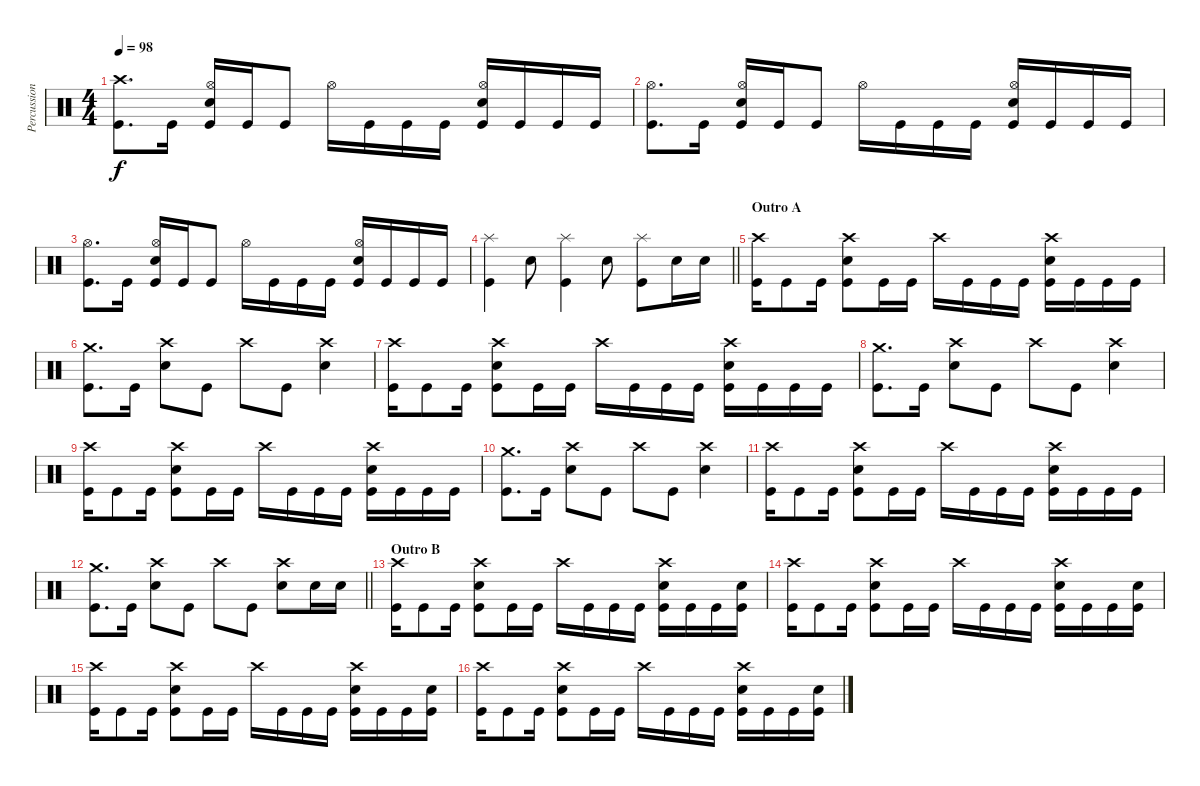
\track ("Percussion" "Percussion") {instrument percussion}
\staff {score}
\articulation defaults
\ts (4 4)
\tempo 98
\clef neutral
\ks c
("Crash high (hit)" "Kick (hit)").8{d dy f} "Kick (hit)".16 ("Hi-Hat (open)" "Electric Snare (hit)" "Kick (hit)").16 "Kick (hit)".16 "Kick (hit)".8 "Hi-Hat (open)".16 "Kick (hit)".16 "Kick (hit)".16 "Kick (hit)".16 ("Hi-Hat (open)" "Electric Snare (hit)" "Kick (hit)").16 "Kick (hit)".16 "Kick (hit)".16 "Kick (hit)".16 |
("Hi-Hat (open)" "Kick (hit)").8{d} "Kick (hit)".16 ("Hi-Hat (open)" "Electric Snare (hit)" "Kick (hit)").16 "Kick (hit)".16 "Kick (hit)".8 "Hi-Hat (open)".16 "Kick (hit)".16 "Kick (hit)".16 "Kick (hit)".16 ("Hi-Hat (open)" "Electric Snare (hit)" "Kick (hit)").16 "Kick (hit)".16 "Kick (hit)".16 "Kick (hit)".16 |
("Hi-Hat (open)" "Kick (hit)").8{d} "Kick (hit)".16 ("Hi-Hat (open)" "Electric Snare (hit)" "Kick (hit)").16 "Kick (hit)".16 "Kick (hit)".8 "Hi-Hat (open)".16 "Kick (hit)".16 "Kick (hit)".16 "Kick (hit)".16 ("Hi-Hat (open)" "Electric Snare (hit)" "Kick (hit)").16 "Kick (hit)".16 "Kick (hit)".16 "Kick (hit)".16 |
\barLineRight lightlight
("Splash (hit)" "Kick (hit)").4 "Electric Snare (hit)".8 ("Splash (hit)" "Kick (hit)").4 "Electric Snare (hit)".8 ("Splash (hit)" "Kick (hit)").8 "Electric Snare (hit)".16 "Electric Snare (hit)".16 |
\section ("" "Outro A")
("Crash high (hit)" "Kick (hit)").16 "Kick (hit)".8 "Kick (hit)".16 ("Crash high (hit)" "Electric Snare (hit)" "Kick (hit)").8 "Kick (hit)".16 "Kick (hit)".16 "Crash high (hit)".16 "Kick (hit)".16 "Kick (hit)".16 "Kick (hit)".16 ("Crash high (hit)" "Electric Snare (hit)" "Kick (hit)").16 "Kick (hit)".16 "Kick (hit)".16 "Kick (hit)".16 |
("Crash medium (hit)" "Kick (hit)").8{d} "Kick (hit)".16 ("Crash high (hit)" "Electric Snare (hit)").8 "Kick (hit)".8 "Crash high (hit)".8 "Kick (hit)".8 ("Crash high (hit)" "Electric Snare (hit)").4 |
("Crash high (hit)" "Kick (hit)").16 "Kick (hit)".8 "Kick (hit)".16 ("Crash high (hit)" "Electric Snare (hit)" "Kick (hit)").8 "Kick (hit)".16 "Kick (hit)".16 "Crash high (hit)".16 "Kick (hit)".16 "Kick (hit)".16 "Kick (hit)".16 ("Crash high (hit)" "Electric Snare (hit)" "Kick (hit)").16 "Kick (hit)".16 "Kick (hit)".16 "Kick (hit)".16 |
("Crash medium (hit)" "Kick (hit)").8{d} "Kick (hit)".16 ("Crash high (hit)" "Electric Snare (hit)").8 "Kick (hit)".8 "Crash high (hit)".8 "Kick (hit)".8 ("Crash high (hit)" "Electric Snare (hit)").4 |
("Crash high (hit)" "Kick (hit)").16 "Kick (hit)".8 "Kick (hit)".16 ("Crash high (hit)" "Electric Snare (hit)" "Kick (hit)").8 "Kick (hit)".16 "Kick (hit)".16 "Crash high (hit)".16 "Kick (hit)".16 "Kick (hit)".16 "Kick (hit)".16 ("Crash high (hit)" "Electric Snare (hit)" "Kick (hit)").16 "Kick (hit)".16 "Kick (hit)".16 "Kick (hit)".16 |
("Crash medium (hit)" "Kick (hit)").8{d} "Kick (hit)".16 ("Crash high (hit)" "Electric Snare (hit)").8 "Kick (hit)".8 "Crash high (hit)".8 "Kick (hit)".8 ("Crash high (hit)" "Electric Snare (hit)").4 |
("Crash high (hit)" "Kick (hit)").16 "Kick (hit)".8 "Kick (hit)".16 ("Crash high (hit)" "Electric Snare (hit)" "Kick (hit)").8 "Kick (hit)".16 "Kick (hit)".16 "Crash high (hit)".16 "Kick (hit)".16 "Kick (hit)".16 "Kick (hit)".16 ("Crash high (hit)" "Electric Snare (hit)" "Kick (hit)").16 "Kick (hit)".16 "Kick (hit)".16 "Kick (hit)".16 |
\barLineRight lightlight
("Crash medium (hit)" "Kick (hit)").8{d} "Kick (hit)".16 ("Crash high (hit)" "Electric Snare (hit)").8 "Kick (hit)".8 "Crash high (hit)".8 "Kick (hit)".8 ("Crash high (hit)" "Electric Snare (hit)").8 "Electric Snare (hit)".16 "Electric Snare (hit)".16 |
\section ("" "Outro B")
("Crash high (hit)" "Kick (hit)").16 "Kick (hit)".8 "Kick (hit)".16 ("Crash high (hit)" "Electric Snare (hit)" "Kick (hit)").8 "Kick (hit)".16 "Kick (hit)".16 "Crash high (hit)".16 "Kick (hit)".16 "Kick (hit)".16 "Kick (hit)".16 ("Crash high (hit)" "Electric Snare (hit)" "Kick (hit)").16 "Kick (hit)".16 "Kick (hit)".16 ("Electric Snare (hit)" "Kick (hit)").16 |
("Crash high (hit)" "Kick (hit)").16 "Kick (hit)".8 "Kick (hit)".16 ("Crash high (hit)" "Electric Snare (hit)" "Kick (hit)").8 "Kick (hit)".16 "Kick (hit)".16 "Crash high (hit)".16 "Kick (hit)".16 "Kick (hit)".16 "Kick (hit)".16 ("Crash high (hit)" "Electric Snare (hit)" "Kick (hit)").16 "Kick (hit)".16 "Kick (hit)".16 ("Electric Snare (hit)" "Kick (hit)").16 |
("Crash high (hit)" "Kick (hit)").16 "Kick (hit)".8 "Kick (hit)".16 ("Crash high (hit)" "Electric Snare (hit)" "Kick (hit)").8 "Kick (hit)".16 "Kick (hit)".16 "Crash high (hit)".16 "Kick (hit)".16 "Kick (hit)".16 "Kick (hit)".16 ("Crash high (hit)" "Electric Snare (hit)" "Kick (hit)").16 "Kick (hit)".16 "Kick (hit)".16 ("Electric Snare (hit)" "Kick (hit)").16 |
("Crash high (hit)" "Kick (hit)").16 "Kick (hit)".8 "Kick (hit)".16 ("Crash high (hit)" "Electric Snare (hit)" "Kick (hit)").8 "Kick (hit)".16 "Kick (hit)".16 "Crash high (hit)".16 "Kick (hit)".16 "Kick (hit)".16 "Kick (hit)".16 ("Crash high (hit)" "Electric Snare (hit)" "Kick (hit)").16 "Kick (hit)".16 "Kick (hit)".16 ("Electric Snare (hit)" "Kick (hit)").16
